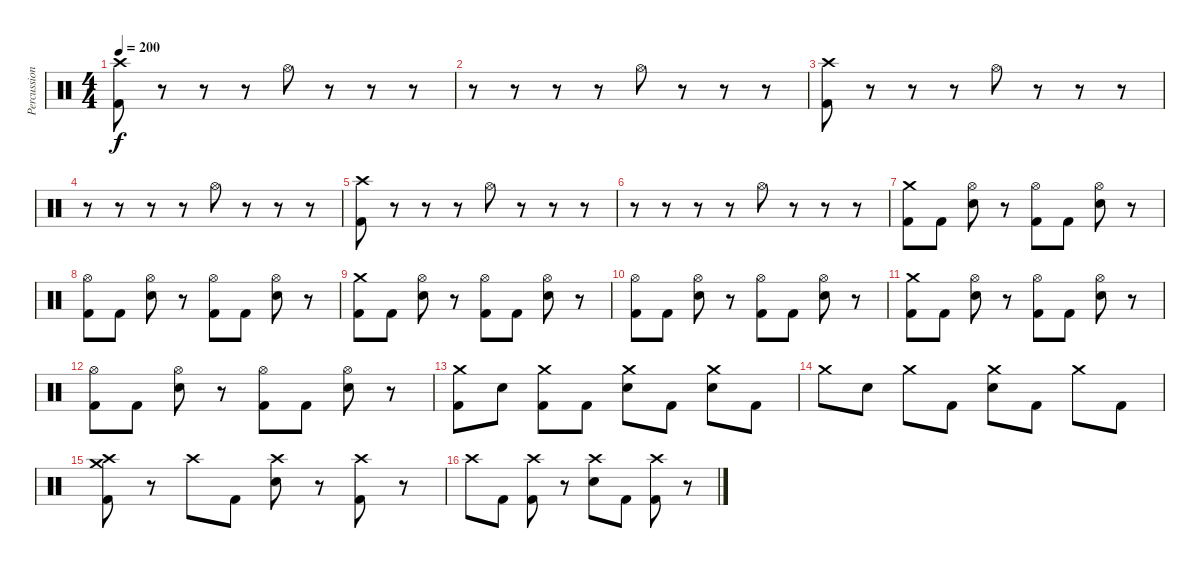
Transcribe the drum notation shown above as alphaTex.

\track ("Percussion" "Percussion") {instrument percussion}
\staff {score}
\articulation defaults
\ts (4 4)
\tempo 200
\clef neutral
\ks c
("Crash high (hit)" "Kick (hit) 2").8{dy f} r.8 r.8 r.8 "Hi-Hat (open)".8 r.8 r.8 r.8 |
r.8 r.8 r.8 r.8 "Hi-Hat (open)".8 r.8 r.8 r.8 |
("Crash high (hit)" "Kick (hit) 2").8 r.8 r.8 r.8 "Hi-Hat (open)".8 r.8 r.8 r.8 |
r.8 r.8 r.8 r.8 "Hi-Hat (open)".8 r.8 r.8 r.8 |
("Crash high (hit)" "Kick (hit) 2").8 r.8 r.8 r.8 "Hi-Hat (open)".8 r.8 r.8 r.8 |
r.8 r.8 r.8 r.8 "Hi-Hat (open)".8 r.8 r.8 r.8 |
("Crash medium (hit)" "Kick (hit) 2").8 "Kick (hit) 2".8 ("Hi-Hat (open)" "Snare (hit) 2").8 r.8 ("Hi-Hat (open)" "Kick (hit) 2").8 "Kick (hit) 2".8 ("Hi-Hat (open)" "Snare (hit) 2").8 r.8 |
("Hi-Hat (open)" "Kick (hit) 2").8 "Kick (hit) 2".8 ("Hi-Hat (open)" "Snare (hit) 2").8 r.8 ("Hi-Hat (open)" "Kick (hit) 2").8 "Kick (hit) 2".8 ("Hi-Hat (open)" "Snare (hit) 2").8 r.8 |
("Crash medium (hit)" "Kick (hit) 2").8 "Kick (hit) 2".8 ("Hi-Hat (open)" "Snare (hit) 2").8 r.8 ("Hi-Hat (open)" "Kick (hit) 2").8 "Kick (hit) 2".8 ("Hi-Hat (open)" "Snare (hit) 2").8 r.8 |
("Hi-Hat (open)" "Kick (hit) 2").8 "Kick (hit) 2".8 ("Hi-Hat (open)" "Snare (hit) 2").8 r.8 ("Hi-Hat (open)" "Kick (hit) 2").8 "Kick (hit) 2".8 ("Hi-Hat (open)" "Snare (hit) 2").8 r.8 |
("Crash medium (hit)" "Kick (hit) 2").8 "Kick (hit) 2".8 ("Hi-Hat (open)" "Snare (hit) 2").8 r.8 ("Hi-Hat (open)" "Kick (hit) 2").8 "Kick (hit) 2".8 ("Hi-Hat (open)" "Snare (hit) 2").8 r.8 |
("Hi-Hat (open)" "Kick (hit) 2").8 "Kick (hit) 2".8 ("Hi-Hat (open)" "Snare (hit) 2").8 r.8 ("Hi-Hat (open)" "Kick (hit) 2").8 "Kick (hit) 2".8 ("Hi-Hat (open)" "Snare (hit) 2").8 r.8 |
("Crash medium (hit)" "Kick (hit) 2").8 "Snare (hit) 2".8 ("Crash medium (hit)" "Kick (hit) 2").8 "Kick (hit) 2".8 ("Crash medium (hit)" "Snare (hit) 2").8 "Kick (hit) 2".8 ("Crash medium (hit)" "Snare (hit) 2").8 "Kick (hit) 2".8 |
"Crash medium (hit)".8 "Snare (hit) 2".8 "Crash medium (hit)".8 "Kick (hit) 2".8 ("Crash medium (hit)" "Snare (hit) 2").8 "Kick (hit) 2".8 "Crash medium (hit)".8 "Kick (hit) 2".8 |
("Crash high (hit)" "Crash medium (hit)" "Kick (hit) 2").8 r.8 "Crash high (hit)".8 "Kick (hit) 2".8 ("Crash high (hit)" "Snare (hit) 2").8 r.8 ("Crash high (hit)" "Kick (hit) 2").8 r.8 |
"Crash high (hit)".8 "Kick (hit) 2".8 ("Crash high (hit)" "Kick (hit) 2").8 r.8 ("Crash high (hit)" "Snare (hit) 2").8 "Kick (hit) 2".8 ("Crash high (hit)" "Kick (hit) 2").8 r.8
